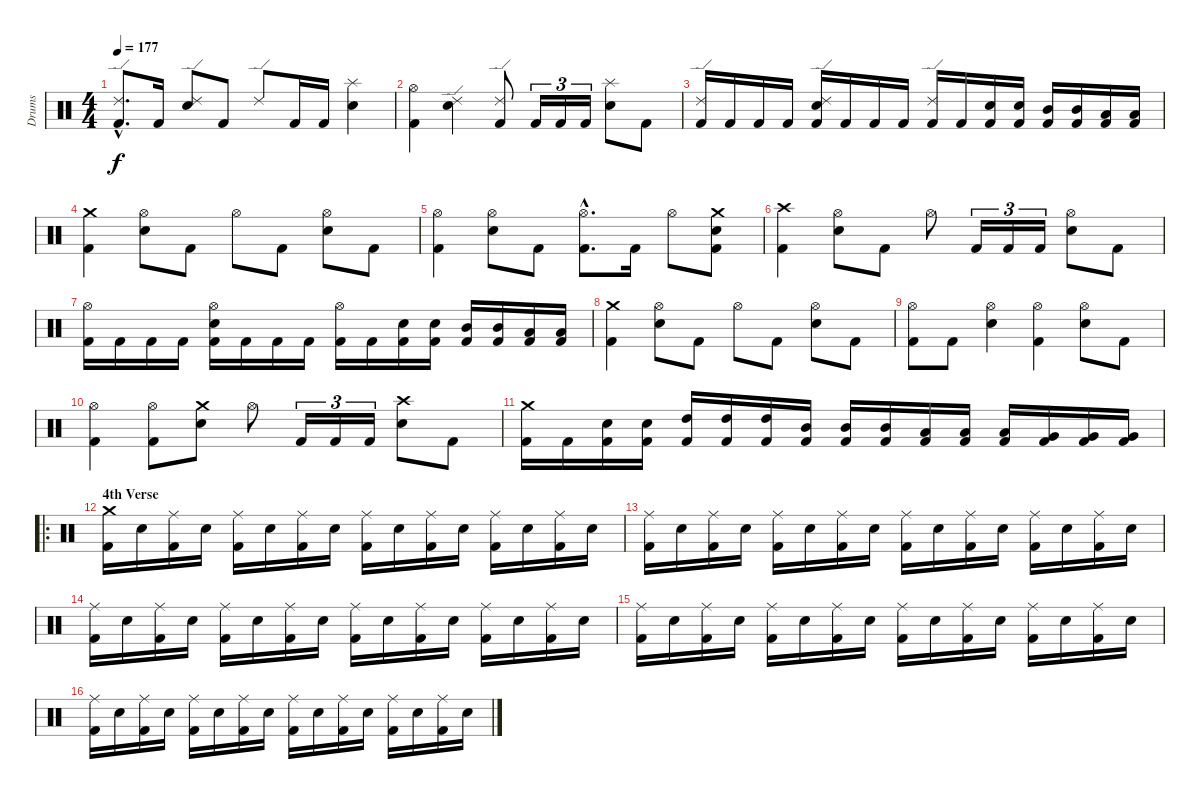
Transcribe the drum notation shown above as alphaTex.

\track ("Drums" "Drums") {instrument percussion}
\staff {score}
\articulation defaults
\ts (4 4)
\tempo 177
\clef neutral
\ks c
("Kick (hit) 2"{hac} "Ride (edge) 2"{hac}).8{d dy f} "Kick (hit) 2".16 ("Electric Snare (hit)" "Ride (edge) 2").8 "Kick (hit) 2".8 "Ride (edge) 2".8 "Kick (hit) 2".16 "Kick (hit) 2".16 ("Electric Snare (hit)" "Splash (hit)").4 |
("Kick (hit) 2" "Hi-Hat (open)").4 ("Electric Snare (hit)" "Ride (edge) 2").4 ("Kick (hit) 2" "Ride (edge) 2").8 "Kick (hit) 2".16{tu (3 2)} "Kick (hit) 2".16{tu (3 2)} "Kick (hit) 2".16{tu (3 2)} ("Electric Snare (hit)" "Splash (hit)").8 "Kick (hit) 2".8 |
("Kick (hit) 2" "Ride (edge) 2").16 "Kick (hit) 2".16 "Kick (hit) 2".16 "Kick (hit) 2".16 ("Kick (hit) 2" "Electric Snare (hit)" "Ride (edge) 2").16 "Kick (hit) 2".16 "Kick (hit) 2".16 "Kick (hit) 2".16 ("Kick (hit) 2" "Ride (edge) 2").16 "Kick (hit) 2".16 ("Kick (hit) 2" "Electric Snare (hit)").16 ("Kick (hit) 2" "Electric Snare (hit)").16 ("Kick (hit) 2" "Mid Tom (hit)").16 ("Kick (hit) 2" "Mid Tom (hit)").16 ("Kick (hit) 2" "Low Tom (hit)").16 ("Kick (hit) 2" "Low Tom (hit)").16 |
("Kick (hit) 2" "Crash medium (hit)").4 ("Electric Snare (hit)" "Hi-Hat (open)").8 "Kick (hit) 2".8 "Hi-Hat (open)".8 "Kick (hit) 2".8 ("Electric Snare (hit)" "Hi-Hat (open)").8 "Kick (hit) 2".8 |
("Kick (hit) 2" "Hi-Hat (open)").4 ("Electric Snare (hit)" "Hi-Hat (open)").8 "Kick (hit) 2".8 ("Kick (hit) 2"{hac} "Hi-Hat (open)"{hac}).8{d} "Kick (hit) 2".16 "Hi-Hat (open)".8 ("Kick (hit) 2" "Electric Snare (hit)" "Crash medium (hit)").8 |
("Kick (hit) 2" "Crash high (hit)").4 ("Electric Snare (hit)" "Hi-Hat (open)").8 "Kick (hit) 2".8 "Hi-Hat (open)".8 "Kick (hit) 2".16{tu (3 2)} "Kick (hit) 2".16{tu (3 2)} "Kick (hit) 2".16{tu (3 2)} ("Electric Snare (hit)" "Hi-Hat (open)").8 "Kick (hit) 2".8 |
("Kick (hit) 2" "Hi-Hat (open)").16 "Kick (hit) 2".16 "Kick (hit) 2".16 "Kick (hit) 2".16 ("Kick (hit) 2" "Electric Snare (hit)" "Hi-Hat (open)").16 "Kick (hit) 2".16 "Kick (hit) 2".16 "Kick (hit) 2".16 ("Kick (hit) 2" "Hi-Hat (open)").16 "Kick (hit) 2".16 ("Kick (hit) 2" "Electric Snare (hit)").16 ("Kick (hit) 2" "Electric Snare (hit)").16 ("Kick (hit) 2" "Mid Tom (hit)").16 ("Kick (hit) 2" "Mid Tom (hit)").16 ("Kick (hit) 2" "Low Tom (hit)").16 ("Kick (hit) 2" "Low Tom (hit)").16 |
("Kick (hit) 2" "Crash medium (hit)").4 ("Electric Snare (hit)" "Hi-Hat (open)").8 "Kick (hit) 2".8 "Hi-Hat (open)".8 "Kick (hit) 2".8 ("Electric Snare (hit)" "Hi-Hat (open)").8 "Kick (hit) 2".8 |
("Kick (hit) 2" "Hi-Hat (open)").8 "Kick (hit) 2".8 ("Electric Snare (hit)" "Hi-Hat (open)").4 ("Kick (hit) 2" "Hi-Hat (open)").4 ("Electric Snare (hit)" "Hi-Hat (open)").8 "Kick (hit) 2".8 |
("Kick (hit) 2" "Hi-Hat (open)").4 ("Kick (hit) 2" "Hi-Hat (open)").8 ("Electric Snare (hit)" "Crash medium (hit)").8 "Hi-Hat (open)".8 "Kick (hit) 2".16{tu (3 2)} "Kick (hit) 2".16{tu (3 2)} "Kick (hit) 2".16{tu (3 2)} ("Electric Snare (hit)" "Crash high (hit)").8 "Kick (hit) 2".8 |
("Kick (hit) 2" "Crash medium (hit)").16 "Kick (hit) 2".16 ("Kick (hit) 2" "Electric Snare (hit)").16 ("Kick (hit) 2" "Electric Snare (hit)").16 ("Kick (hit) 2" "High Tom (hit)").16 ("Kick (hit) 2" "High Tom (hit)").16 ("Kick (hit) 2" "High Tom (hit)").16 ("Kick (hit) 2" "Mid Tom (hit)").16 ("Kick (hit) 2" "Mid Tom (hit)").16 ("Kick (hit) 2" "Mid Tom (hit)").16 ("Kick (hit) 2" "Low Tom (hit)").16 ("Kick (hit) 2" "Low Tom (hit)").16 ("Kick (hit) 2" "Low Tom (hit)").16 ("Kick (hit) 2" "Very Low Tom (hit)").16 ("Kick (hit) 2" "Very Low Tom (hit)").16 ("Kick (hit) 2" "Very Low Tom (hit)").16 |
\ro
\section ("" "4th Verse")
("Kick (hit) 2" "Crash medium (hit)").16 "Electric Snare (hit)".16 ("Kick (hit) 2" "Ride (middle)").16 "Electric Snare (hit)".16 ("Kick (hit) 2" "Ride (middle)").16 "Electric Snare (hit)".16 ("Kick (hit) 2" "Ride (middle)").16 "Electric Snare (hit)".16 ("Kick (hit) 2" "Ride (middle)").16 "Electric Snare (hit)".16 ("Kick (hit) 2" "Ride (middle)").16 "Electric Snare (hit)".16 ("Kick (hit) 2" "Ride (middle)").16 "Electric Snare (hit)".16 ("Kick (hit) 2" "Ride (middle)").16 "Electric Snare (hit)".16 |
("Kick (hit) 2" "Ride (middle)").16 "Electric Snare (hit)".16 ("Kick (hit) 2" "Ride (middle)").16 "Electric Snare (hit)".16 ("Kick (hit) 2" "Ride (middle)").16 "Electric Snare (hit)".16 ("Kick (hit) 2" "Ride (middle)").16 "Electric Snare (hit)".16 ("Kick (hit) 2" "Ride (middle)").16 "Electric Snare (hit)".16 ("Kick (hit) 2" "Ride (middle)").16 "Electric Snare (hit)".16 ("Kick (hit) 2" "Ride (middle)").16 "Electric Snare (hit)".16 ("Kick (hit) 2" "Ride (middle)").16 "Electric Snare (hit)".16 |
("Kick (hit) 2" "Ride (middle)").16 "Electric Snare (hit)".16 ("Kick (hit) 2" "Ride (middle)").16 "Electric Snare (hit)".16 ("Kick (hit) 2" "Ride (middle)").16 "Electric Snare (hit)".16 ("Kick (hit) 2" "Ride (middle)").16 "Electric Snare (hit)".16 ("Kick (hit) 2" "Ride (middle)").16 "Electric Snare (hit)".16 ("Kick (hit) 2" "Ride (middle)").16 "Electric Snare (hit)".16 ("Kick (hit) 2" "Ride (middle)").16 "Electric Snare (hit)".16 ("Kick (hit) 2" "Ride (middle)").16 "Electric Snare (hit)".16 |
("Kick (hit) 2" "Ride (middle)").16 "Electric Snare (hit)".16 ("Kick (hit) 2" "Ride (middle)").16 "Electric Snare (hit)".16 ("Kick (hit) 2" "Ride (middle)").16 "Electric Snare (hit)".16 ("Kick (hit) 2" "Ride (middle)").16 "Electric Snare (hit)".16 ("Kick (hit) 2" "Ride (middle)").16 "Electric Snare (hit)".16 ("Kick (hit) 2" "Ride (middle)").16 "Electric Snare (hit)".16 ("Kick (hit) 2" "Ride (middle)").16 "Electric Snare (hit)".16 ("Kick (hit) 2" "Ride (middle)").16 "Electric Snare (hit)".16 |
("Kick (hit) 2" "Ride (middle)").16 "Electric Snare (hit)".16 ("Kick (hit) 2" "Ride (middle)").16 "Electric Snare (hit)".16 ("Kick (hit) 2" "Ride (middle)").16 "Electric Snare (hit)".16 ("Kick (hit) 2" "Ride (middle)").16 "Electric Snare (hit)".16 ("Kick (hit) 2" "Ride (middle)").16 "Electric Snare (hit)".16 ("Kick (hit) 2" "Ride (middle)").16 "Electric Snare (hit)".16 ("Kick (hit) 2" "Ride (middle)").16 "Electric Snare (hit)".16 ("Kick (hit) 2" "Ride (middle)").16 "Electric Snare (hit)".16
